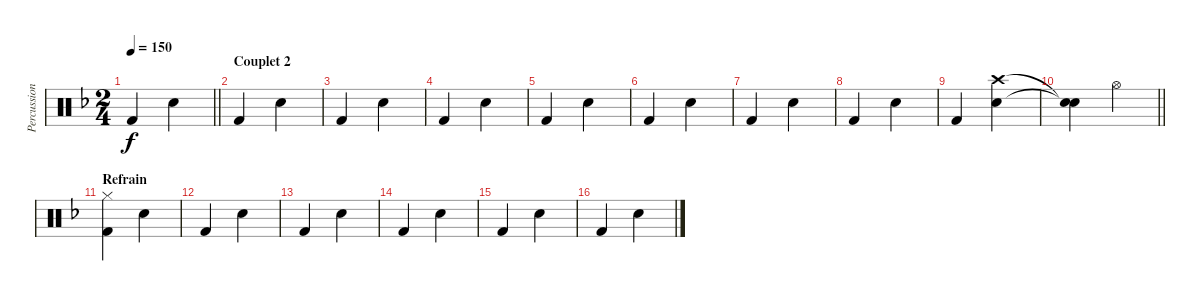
\track ("Percussions" "Percussion") {instrument percussion}
\staff {score}
\articulation defaults
\ts (2 4)
\tempo 150
\clef neutral
\barLineRight lightlight
\ks f "Kick (hit) 2".4{dy f} "Snare (hit) 2".4
|
\section ("" "Couplet 2")
"Kick (hit) 2".4 "Snare (hit) 2".4 |
"Kick (hit) 2".4 "Snare (hit) 2".4 |
"Kick (hit) 2".4 "Snare (hit) 2".4 |
"Kick (hit) 2".4 "Snare (hit) 2".4 |
"Kick (hit) 2".4 "Snare (hit) 2".4 |
"Kick (hit) 2".4 "Snare (hit) 2".4 |
"Kick (hit) 2".4 "Snare (hit) 2".4 |
"Kick (hit) 2".4 ("Crash high (hit)" "Snare (hit) 2").4 |
\barLineRight lightlight
("Snare (hit)"{t} "Snare (hit)"{t}).4 "Hi-Hat (open)".4 |
\section ("" "Refrain")
("Hi-Hat (closed)" "Kick (hit) 2").4 "Snare (hit) 2".4 |
"Kick (hit) 2".4 "Snare (hit) 2".4 |
"Kick (hit) 2".4 "Snare (hit) 2".4 |
"Kick (hit) 2".4 "Snare (hit) 2".4 |
"Kick (hit) 2".4 "Snare (hit) 2".4 |
"Kick (hit) 2".4 "Snare (hit) 2".4
